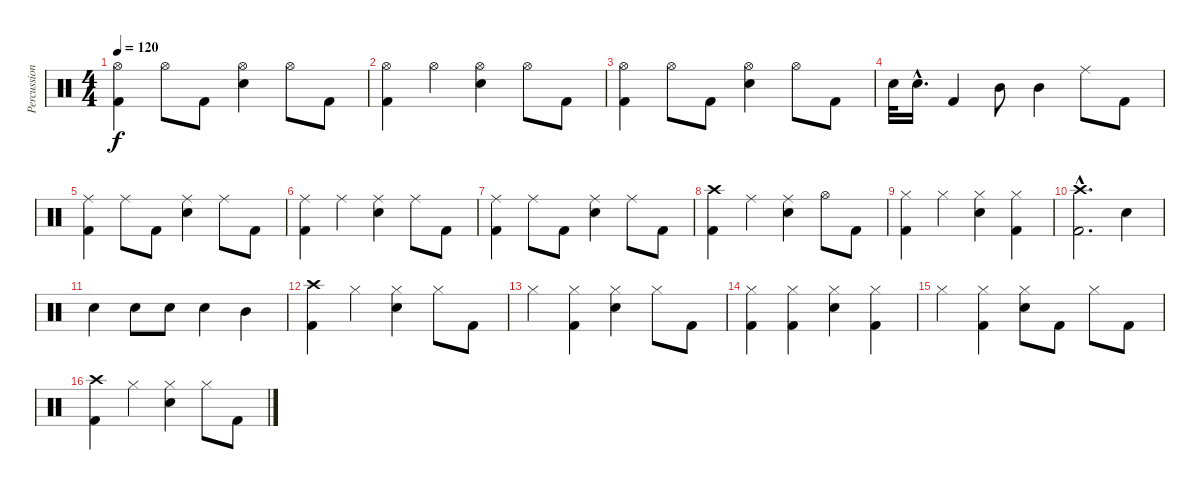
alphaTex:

\track ("Percussion" "Percussion") {instrument percussion}
\staff {score}
\articulation defaults
\ts (4 4)
\tempo 120
\clef neutral
\ks c
("Hi-Hat (open)" "Kick (hit) 2").4{dy f} "Hi-Hat (open)".8 "Kick (hit) 2".8 ("Hi-Hat (open)" "Snare (hit) 2").4 "Hi-Hat (open)".8 "Kick (hit) 2".8 |
("Hi-Hat (open)" "Kick (hit) 2").4 "Hi-Hat (open)".4 ("Hi-Hat (open)" "Snare (hit) 2").4 "Hi-Hat (open)".8 "Kick (hit) 2".8 |
("Hi-Hat (open)" "Kick (hit) 2").4 "Hi-Hat (open)".8 "Kick (hit) 2".8 ("Hi-Hat (open)" "Snare (hit) 2").4 "Hi-Hat (open)".8 "Kick (hit) 2".8 |
"Snare (hit) 2".32 "Snare (hit) 2"{hac}.16{d} "Kick (hit) 2".4 "Mid Tom (hit)".8 "Mid Tom (hit)".4 "Ride (middle)".8 "Kick (hit) 2".8 |
("Ride (middle)" "Kick (hit) 2").4 "Ride (middle)".8 "Kick (hit) 2".8 ("Ride (middle)" "Snare (hit) 2").4 "Ride (middle)".8 "Kick (hit) 2".8 |
("Ride (middle)" "Kick (hit) 2").4 "Ride (middle)".4 ("Ride (middle)" "Snare (hit) 2").4 "Ride (middle)".8 "Kick (hit) 2".8 |
("Ride (middle)" "Kick (hit) 2").4 "Ride (middle)".8 "Kick (hit) 2".8 ("Ride (middle)" "Snare (hit) 2").4 "Ride (middle)".8 "Kick (hit) 2".8 |
("Crash high (hit)" "Kick (hit) 2").4 "Ride (middle)".4 ("Ride (middle)" "Snare (hit) 2").4 "Hi-Hat (open)".8 "Kick (hit) 2".8 |
("Hi-Hat (closed)" "Kick (hit) 2").4 "Hi-Hat (closed)".4 ("Hi-Hat (closed)" "Snare (hit) 2").4 ("Hi-Hat (closed)" "Kick (hit) 2").4 |
("Crash high (hit)"{hac} "Kick (hit) 2"{hac}).2{d} "Snare (hit) 2".4 |
"Snare (hit) 2".4 "Snare (hit) 2".8 "Snare (hit) 2".8 "Snare (hit) 2".4 "Mid Tom (hit)".4 |
("Crash high (hit)" "Kick (hit) 2").4 "Hi-Hat (closed)".4 ("Hi-Hat (closed)" "Snare (hit) 2").4 "Hi-Hat (closed)".8 "Kick (hit) 2".8 |
"Hi-Hat (closed)".4 ("Hi-Hat (closed)" "Kick (hit) 2").4 ("Hi-Hat (closed)" "Snare (hit) 2").4 "Hi-Hat (closed)".8 "Kick (hit) 2".8 |
("Hi-Hat (closed)" "Kick (hit) 2").4 ("Hi-Hat (closed)" "Kick (hit) 2").4 ("Hi-Hat (closed)" "Snare (hit) 2").4 ("Hi-Hat (closed)" "Kick (hit) 2").4 |
"Hi-Hat (closed)".4 ("Hi-Hat (closed)" "Kick (hit) 2").4 ("Hi-Hat (closed)" "Snare (hit) 2").8 "Kick (hit) 2".8 "Hi-Hat (closed)".8 "Kick (hit) 2".8 |
("Crash high (hit)" "Kick (hit) 2").4 "Hi-Hat (closed)".4 ("Hi-Hat (closed)" "Snare (hit) 2").4 "Hi-Hat (closed)".8 "Kick (hit) 2".8
